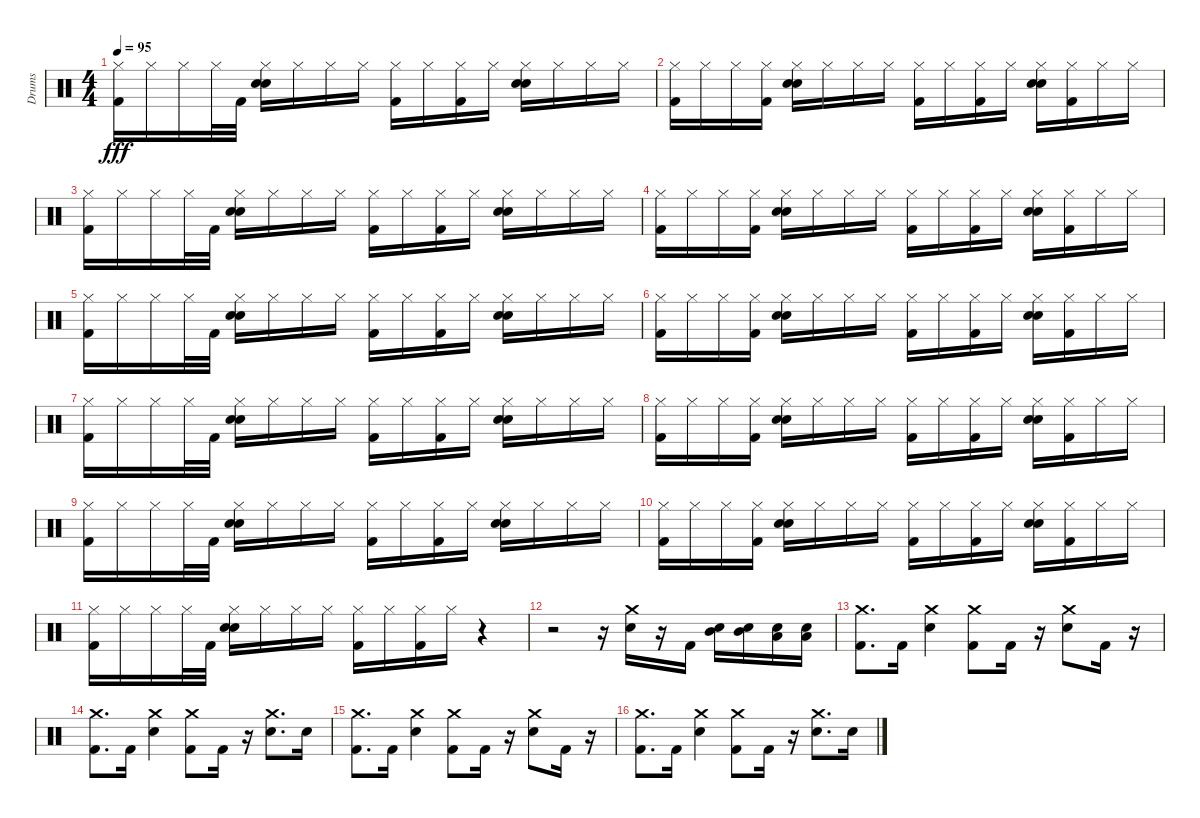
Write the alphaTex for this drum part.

\track ("Drums" "Drums") {instrument percussion}
\staff {score}
\articulation defaults
\ts (4 4)
\tempo 95
\clef neutral
\ks c
("Hi-Hat (closed)" "Kick (hit) 2").16{dy fff} "Hi-Hat (closed)".16 "Hi-Hat (closed)".16 "Hi-Hat (closed)".32 "Kick (hit) 2".32 ("Hi-Hat (closed)" "Snare (hit) 2" "Electric Snare (hit)").16 "Hi-Hat (closed)".16 "Hi-Hat (closed)".16 "Hi-Hat (closed)".16 ("Hi-Hat (closed)" "Kick (hit) 2").16 "Hi-Hat (closed)".16 ("Hi-Hat (closed)" "Kick (hit) 2").16 "Hi-Hat (closed)".16 ("Hi-Hat (closed)" "Snare (hit) 2" "Electric Snare (hit)").16 "Hi-Hat (closed)".16 "Hi-Hat (closed)".16 "Hi-Hat (closed)".16 |
("Kick (hit) 2" "Hi-Hat (closed)").16 "Hi-Hat (closed)".16 "Hi-Hat (closed)".16 ("Kick (hit) 2" "Hi-Hat (closed)").16 ("Snare (hit) 2" "Electric Snare (hit)" "Hi-Hat (closed)").16 "Hi-Hat (closed)".16 "Hi-Hat (closed)".16 "Hi-Hat (closed)".16 ("Kick (hit) 2" "Hi-Hat (closed)").16 "Hi-Hat (closed)".16 ("Kick (hit) 2" "Hi-Hat (closed)").16 "Hi-Hat (closed)".16 ("Snare (hit) 2" "Electric Snare (hit)" "Hi-Hat (closed)").16 ("Kick (hit) 2" "Hi-Hat (closed)").16 "Hi-Hat (closed)".16 "Hi-Hat (closed)".16 |
("Hi-Hat (closed)" "Kick (hit) 2").16 "Hi-Hat (closed)".16 "Hi-Hat (closed)".16 "Hi-Hat (closed)".32 "Kick (hit) 2".32 ("Hi-Hat (closed)" "Snare (hit) 2" "Electric Snare (hit)").16 "Hi-Hat (closed)".16 "Hi-Hat (closed)".16 "Hi-Hat (closed)".16 ("Hi-Hat (closed)" "Kick (hit) 2").16 "Hi-Hat (closed)".16 ("Hi-Hat (closed)" "Kick (hit) 2").16 "Hi-Hat (closed)".16 ("Hi-Hat (closed)" "Snare (hit) 2" "Electric Snare (hit)").16 "Hi-Hat (closed)".16 "Hi-Hat (closed)".16 "Hi-Hat (closed)".16 |
("Kick (hit) 2" "Hi-Hat (closed)").16 "Hi-Hat (closed)".16 "Hi-Hat (closed)".16 ("Kick (hit) 2" "Hi-Hat (closed)").16 ("Snare (hit) 2" "Electric Snare (hit)" "Hi-Hat (closed)").16 "Hi-Hat (closed)".16 "Hi-Hat (closed)".16 "Hi-Hat (closed)".16 ("Kick (hit) 2" "Hi-Hat (closed)").16 "Hi-Hat (closed)".16 ("Kick (hit) 2" "Hi-Hat (closed)").16 "Hi-Hat (closed)".16 ("Snare (hit) 2" "Electric Snare (hit)" "Hi-Hat (closed)").16 ("Kick (hit) 2" "Hi-Hat (closed)").16 "Hi-Hat (closed)".16 "Hi-Hat (closed)".16 |
("Hi-Hat (closed)" "Kick (hit) 2").16 "Hi-Hat (closed)".16 "Hi-Hat (closed)".16 "Hi-Hat (closed)".32 "Kick (hit) 2".32 ("Hi-Hat (closed)" "Snare (hit) 2" "Electric Snare (hit)").16 "Hi-Hat (closed)".16 "Hi-Hat (closed)".16 "Hi-Hat (closed)".16 ("Hi-Hat (closed)" "Kick (hit) 2").16 "Hi-Hat (closed)".16 ("Hi-Hat (closed)" "Kick (hit) 2").16 "Hi-Hat (closed)".16 ("Hi-Hat (closed)" "Snare (hit) 2" "Electric Snare (hit)").16 "Hi-Hat (closed)".16 "Hi-Hat (closed)".16 "Hi-Hat (closed)".16 |
("Kick (hit) 2" "Hi-Hat (closed)").16 "Hi-Hat (closed)".16 "Hi-Hat (closed)".16 ("Kick (hit) 2" "Hi-Hat (closed)").16 ("Snare (hit) 2" "Electric Snare (hit)" "Hi-Hat (closed)").16 "Hi-Hat (closed)".16 "Hi-Hat (closed)".16 "Hi-Hat (closed)".16 ("Kick (hit) 2" "Hi-Hat (closed)").16 "Hi-Hat (closed)".16 ("Kick (hit) 2" "Hi-Hat (closed)").16 "Hi-Hat (closed)".16 ("Snare (hit) 2" "Electric Snare (hit)" "Hi-Hat (closed)").16 ("Kick (hit) 2" "Hi-Hat (closed)").16 "Hi-Hat (closed)".16 "Hi-Hat (closed)".16 |
("Hi-Hat (closed)" "Kick (hit) 2").16 "Hi-Hat (closed)".16 "Hi-Hat (closed)".16 "Hi-Hat (closed)".32 "Kick (hit) 2".32 ("Hi-Hat (closed)" "Snare (hit) 2" "Electric Snare (hit)").16 "Hi-Hat (closed)".16 "Hi-Hat (closed)".16 "Hi-Hat (closed)".16 ("Hi-Hat (closed)" "Kick (hit) 2").16 "Hi-Hat (closed)".16 ("Hi-Hat (closed)" "Kick (hit) 2").16 "Hi-Hat (closed)".16 ("Hi-Hat (closed)" "Snare (hit) 2" "Electric Snare (hit)").16 "Hi-Hat (closed)".16 "Hi-Hat (closed)".16 "Hi-Hat (closed)".16 |
("Kick (hit) 2" "Hi-Hat (closed)").16 "Hi-Hat (closed)".16 "Hi-Hat (closed)".16 ("Kick (hit) 2" "Hi-Hat (closed)").16 ("Snare (hit) 2" "Electric Snare (hit)" "Hi-Hat (closed)").16 "Hi-Hat (closed)".16 "Hi-Hat (closed)".16 "Hi-Hat (closed)".16 ("Kick (hit) 2" "Hi-Hat (closed)").16 "Hi-Hat (closed)".16 ("Kick (hit) 2" "Hi-Hat (closed)").16 "Hi-Hat (closed)".16 ("Snare (hit) 2" "Electric Snare (hit)" "Hi-Hat (closed)").16 ("Kick (hit) 2" "Hi-Hat (closed)").16 "Hi-Hat (closed)".16 "Hi-Hat (closed)".16 |
("Hi-Hat (closed)" "Kick (hit) 2").16 "Hi-Hat (closed)".16 "Hi-Hat (closed)".16 "Hi-Hat (closed)".32 "Kick (hit) 2".32 ("Hi-Hat (closed)" "Snare (hit) 2" "Electric Snare (hit)").16 "Hi-Hat (closed)".16 "Hi-Hat (closed)".16 "Hi-Hat (closed)".16 ("Hi-Hat (closed)" "Kick (hit) 2").16 "Hi-Hat (closed)".16 ("Hi-Hat (closed)" "Kick (hit) 2").16 "Hi-Hat (closed)".16 ("Hi-Hat (closed)" "Snare (hit) 2" "Electric Snare (hit)").16 "Hi-Hat (closed)".16 "Hi-Hat (closed)".16 "Hi-Hat (closed)".16 |
("Kick (hit) 2" "Hi-Hat (closed)").16 "Hi-Hat (closed)".16 "Hi-Hat (closed)".16 ("Kick (hit) 2" "Hi-Hat (closed)").16 ("Snare (hit) 2" "Electric Snare (hit)" "Hi-Hat (closed)").16 "Hi-Hat (closed)".16 "Hi-Hat (closed)".16 "Hi-Hat (closed)".16 ("Kick (hit) 2" "Hi-Hat (closed)").16 "Hi-Hat (closed)".16 ("Kick (hit) 2" "Hi-Hat (closed)").16 "Hi-Hat (closed)".16 ("Snare (hit) 2" "Electric Snare (hit)" "Hi-Hat (closed)").16 ("Kick (hit) 2" "Hi-Hat (closed)").16 "Hi-Hat (closed)".16 "Hi-Hat (closed)".16 |
("Hi-Hat (closed)" "Kick (hit) 2").16 "Hi-Hat (closed)".16 "Hi-Hat (closed)".16 "Hi-Hat (closed)".32 "Kick (hit) 2".32 ("Hi-Hat (closed)" "Snare (hit) 2" "Electric Snare (hit)").16 "Hi-Hat (closed)".16 "Hi-Hat (closed)".16 "Hi-Hat (closed)".16 ("Hi-Hat (closed)" "Kick (hit) 2").16 "Hi-Hat (closed)".16 ("Hi-Hat (closed)" "Kick (hit) 2").16 "Hi-Hat (closed)".16 r.4 |
r.2 r.16 ("Crash medium (hit)" "Electric Snare (hit)").16 r.16 "Kick (hit) 2".16 ("Mid Tom (hit)" "Electric Snare (hit)").16 ("Mid Tom (hit)" "Electric Snare (hit)").16 ("Low Tom (hit)" "Electric Snare (hit)").16 ("Low Tom (hit)" "Electric Snare (hit)").16 |
("Crash medium (hit)" "Kick (hit) 2").8{d} "Kick (hit) 2".16 ("Crash medium (hit)" "Electric Snare (hit)").4 ("Crash medium (hit)" "Kick (hit) 2").8 "Kick (hit) 2".16 r.16 ("Crash medium (hit)" "Electric Snare (hit)").8 "Kick (hit) 2".16 r.16 |
("Crash medium (hit)" "Kick (hit) 2").8{d} "Kick (hit) 2".16 ("Crash medium (hit)" "Electric Snare (hit)").4 ("Crash medium (hit)" "Kick (hit) 2").8 "Kick (hit) 2".16 r.16 ("Crash medium (hit)" "Electric Snare (hit)").8{d} "Electric Snare (hit)".16 |
("Crash medium (hit)" "Kick (hit) 2").8{d} "Kick (hit) 2".16 ("Crash medium (hit)" "Electric Snare (hit)").4 ("Crash medium (hit)" "Kick (hit) 2").8 "Kick (hit) 2".16 r.16 ("Crash medium (hit)" "Electric Snare (hit)").8 "Kick (hit) 2".16 r.16 |
("Crash medium (hit)" "Kick (hit) 2").8{d} "Kick (hit) 2".16 ("Crash medium (hit)" "Electric Snare (hit)").4 ("Crash medium (hit)" "Kick (hit) 2").8 "Kick (hit) 2".16 r.16 ("Crash medium (hit)" "Electric Snare (hit)").8{d} "Electric Snare (hit)".16
